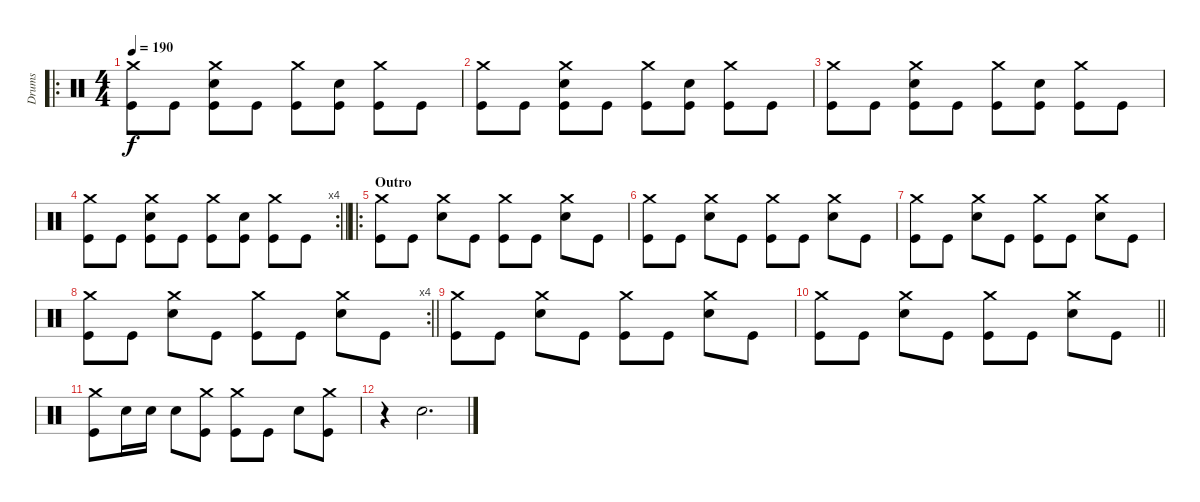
\track ("Drums" "Drums") {instrument percussion}
\staff {score}
\articulation defaults
\ro
\ts (4 4)
\tempo 190
\clef neutral
\ks c
("Crash medium (hit)" "Kick (hit)").8{dy f} "Kick (hit)".8 ("Crash medium (hit)" "Snare (hit) 2" "Kick (hit)").8 "Kick (hit)".8 ("Crash medium (hit)" "Kick (hit)").8 ("Snare (hit) 2" "Kick (hit)").8 ("Crash medium (hit)" "Kick (hit)").8 "Kick (hit)".8 |
("Crash medium (hit)" "Kick (hit)").8 "Kick (hit)".8 ("Crash medium (hit)" "Snare (hit) 2" "Kick (hit)").8 "Kick (hit)".8 ("Crash medium (hit)" "Kick (hit)").8 ("Snare (hit) 2" "Kick (hit)").8 ("Crash medium (hit)" "Kick (hit)").8 "Kick (hit)".8 |
("Crash medium (hit)" "Kick (hit)").8 "Kick (hit)".8 ("Crash medium (hit)" "Snare (hit) 2" "Kick (hit)").8 "Kick (hit)".8 ("Crash medium (hit)" "Kick (hit)").8 ("Snare (hit) 2" "Kick (hit)").8 ("Crash medium (hit)" "Kick (hit)").8 "Kick (hit)".8 |
\rc 4
\barLineRight lightlight
("Crash medium (hit)" "Kick (hit)").8 "Kick (hit)".8 ("Crash medium (hit)" "Snare (hit) 2" "Kick (hit)").8 "Kick (hit)".8 ("Crash medium (hit)" "Kick (hit)").8 ("Snare (hit) 2" "Kick (hit)").8 ("Crash medium (hit)" "Kick (hit)").8 "Kick (hit)".8 |
\ro
\section ("" "Outro")
("Crash medium (hit)" "Kick (hit)").8 "Kick (hit)".8 ("Crash medium (hit)" "Snare (hit) 2").8 "Kick (hit)".8 ("Crash medium (hit)" "Kick (hit)").8 "Kick (hit)".8 ("Crash medium (hit)" "Snare (hit) 2").8 "Kick (hit)".8 |
("Crash medium (hit)" "Kick (hit)").8 "Kick (hit)".8 ("Crash medium (hit)" "Snare (hit) 2").8 "Kick (hit)".8 ("Crash medium (hit)" "Kick (hit)").8 "Kick (hit)".8 ("Crash medium (hit)" "Snare (hit) 2").8 "Kick (hit)".8 |
("Crash medium (hit)" "Kick (hit)").8 "Kick (hit)".8 ("Crash medium (hit)" "Snare (hit) 2").8 "Kick (hit)".8 ("Crash medium (hit)" "Kick (hit)").8 "Kick (hit)".8 ("Crash medium (hit)" "Snare (hit) 2").8 "Kick (hit)".8 |
\rc 4
\barLineRight lightlight
("Crash medium (hit)" "Kick (hit)").8 "Kick (hit)".8 ("Crash medium (hit)" "Snare (hit) 2").8 "Kick (hit)".8 ("Crash medium (hit)" "Kick (hit)").8 "Kick (hit)".8 ("Crash medium (hit)" "Snare (hit) 2").8 "Kick (hit)".8 |
("Crash medium (hit)" "Kick (hit)").8 "Kick (hit)".8 ("Crash medium (hit)" "Snare (hit) 2").8 "Kick (hit)".8 ("Crash medium (hit)" "Kick (hit)").8 "Kick (hit)".8 ("Crash medium (hit)" "Snare (hit) 2").8 "Kick (hit)".8 |
\barLineRight lightlight
("Crash medium (hit)" "Kick (hit)").8 "Kick (hit)".8 ("Crash medium (hit)" "Snare (hit) 2").8 "Kick (hit)".8 ("Crash medium (hit)" "Kick (hit)").8 "Kick (hit)".8 ("Crash medium (hit)" "Snare (hit) 2").8 "Kick (hit)".8 |
("Crash medium (hit)" "Kick (hit)").8 "Snare (hit) 2".16 "Snare (hit) 2".16 "Snare (hit) 2".8 ("Crash medium (hit)" "Kick (hit)").8 ("Crash medium (hit)" "Kick (hit)").8 "Kick (hit)".8 "Snare (hit) 2".8 ("Crash medium (hit)" "Kick (hit)").8 |
r.4 "Snare (hit)".2{d volume 0}
